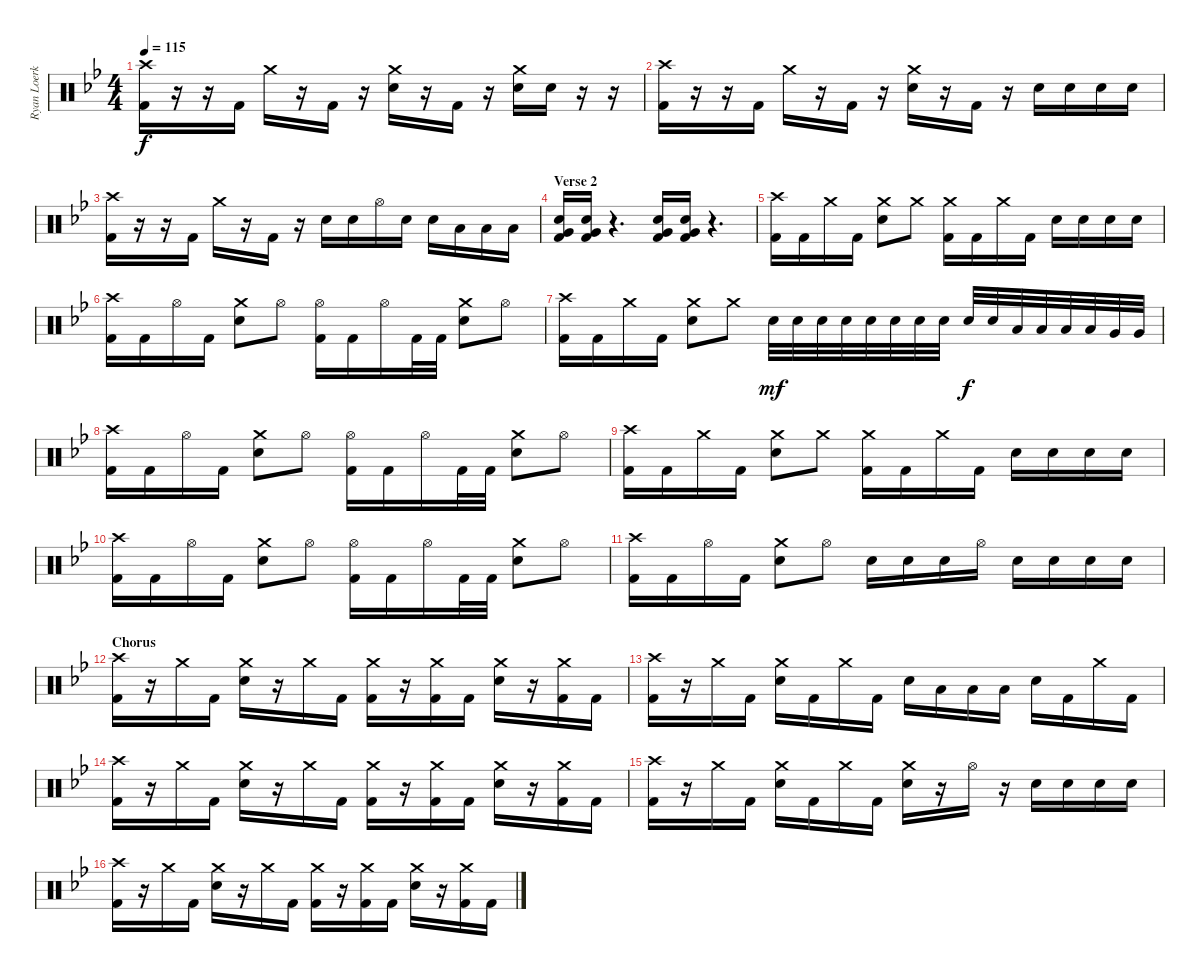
\track ("Ryan Loerke" "Ryan Loerk") {instrument percussion}
\staff {score}
\articulation defaults
\ts (4 4)
\tempo 115
\clef neutral
\ks gminor
("Crash high (hit)" "Kick (hit) 2").16{dy f} r.16 r.16 "Kick (hit) 2".16 "Crash medium (hit)".16 r.16 "Kick (hit) 2".16 r.16 ("Crash medium (hit)" "Snare (hit) 2").16 r.16 "Kick (hit) 2".16 r.16 ("Crash medium (hit)" "Snare (hit) 2").16 "Snare (hit) 2".16 r.16 r.16 |
("Crash high (hit)" "Kick (hit) 2").16 r.16 r.16 "Kick (hit) 2".16 "Crash medium (hit)".16 r.16 "Kick (hit) 2".16 r.16 ("Crash medium (hit)" "Snare (hit) 2").16 r.16 "Kick (hit) 2".16 r.16 "Snare (hit) 2".16 "Snare (hit) 2".16 "Snare (hit) 2".16 "Snare (hit) 2".16 |
("Crash high (hit)" "Kick (hit) 2").16 r.16 r.16 "Kick (hit) 2".16 "Crash medium (hit)".16 r.16 "Kick (hit) 2".16 r.16 "Snare (hit) 2".16 "Snare (hit) 2".16 "Hi-Hat (open)".16 "Snare (hit) 2".16 "Snare (hit) 2".16 "Low Tom (hit)".16 "Low Tom (hit)".16 "Low Tom (hit)".16 |
\section ("" "Verse 2")
("Snare (hit) 2" "Very Low Tom (hit)" "Kick (hit) 2").16 ("Snare (hit) 2" "Very Low Tom (hit)" "Kick (hit) 2").16 r.4{d} ("Snare (hit) 2" "Very Low Tom (hit)" "Kick (hit) 2").16 ("Snare (hit) 2" "Very Low Tom (hit)" "Kick (hit) 2").16 r.4{d} |
("Crash high (hit)" "Kick (hit) 2").16 "Kick (hit) 2".16 "Crash medium (hit)".16 "Kick (hit) 2".16 ("Crash medium (hit)" "Snare (hit) 2").8 "Crash medium (hit)".8 ("Crash medium (hit)" "Kick (hit) 2").16 "Kick (hit) 2".16 "Crash medium (hit)".16 "Kick (hit) 2".16 "Snare (hit) 2".16 "Snare (hit) 2".16 "Snare (hit) 2".16 "Snare (hit) 2".16 |
("Crash high (hit)" "Kick (hit) 2").16 "Kick (hit) 2".16 "Hi-Hat (open)".16 "Kick (hit) 2".16 ("Crash medium (hit)" "Snare (hit) 2").8 "Hi-Hat (open)".8 ("Hi-Hat (open)" "Kick (hit) 2").16 "Kick (hit) 2".16 "Hi-Hat (open)".16 "Kick (hit) 2".32 "Kick (hit) 2".32 ("Crash medium (hit)" "Snare (hit) 2").8 "Hi-Hat (open)".8 |
("Crash high (hit)" "Kick (hit) 2").16 "Kick (hit) 2".16 "Crash medium (hit)".16 "Kick (hit) 2".16 ("Crash medium (hit)" "Snare (hit) 2").8 "Crash medium (hit)".8 "Snare (hit) 2".32{dy mf} "Snare (hit) 2".32 "Snare (hit) 2".32 "Snare (hit) 2".32 "Snare (hit) 2".32 "Snare (hit) 2".32 "Snare (hit) 2".32 "Snare (hit) 2".32 "Snare (hit) 2".32{dy f} "Snare (hit) 2".32 "Low Tom (hit)".32 "Low Tom (hit)".32 "Low Tom (hit)".32 "Low Tom (hit)".32 "Very Low Tom (hit)".32 "Very Low Tom (hit)".32 |
("Crash high (hit)" "Kick (hit) 2").16 "Kick (hit) 2".16 "Hi-Hat (open)".16 "Kick (hit) 2".16 ("Crash medium (hit)" "Snare (hit) 2").8 "Hi-Hat (open)".8 ("Hi-Hat (open)" "Kick (hit) 2").16 "Kick (hit) 2".16 "Hi-Hat (open)".16 "Kick (hit) 2".32 "Kick (hit) 2".32 ("Crash medium (hit)" "Snare (hit) 2").8 "Hi-Hat (open)".8 |
("Crash high (hit)" "Kick (hit) 2").16 "Kick (hit) 2".16 "Crash medium (hit)".16 "Kick (hit) 2".16 ("Crash medium (hit)" "Snare (hit) 2").8 "Crash medium (hit)".8 ("Crash medium (hit)" "Kick (hit) 2").16 "Kick (hit) 2".16 "Crash medium (hit)".16 "Kick (hit) 2".16 "Snare (hit) 2".16 "Snare (hit) 2".16 "Snare (hit) 2".16 "Snare (hit) 2".16 |
("Crash high (hit)" "Kick (hit) 2").16 "Kick (hit) 2".16 "Hi-Hat (open)".16 "Kick (hit) 2".16 ("Crash medium (hit)" "Snare (hit) 2").8 "Hi-Hat (open)".8 ("Hi-Hat (open)" "Kick (hit) 2").16 "Kick (hit) 2".16 "Hi-Hat (open)".16 "Kick (hit) 2".32 "Kick (hit) 2".32 ("Crash medium (hit)" "Snare (hit) 2").8 "Hi-Hat (open)".8 |
("Crash high (hit)" "Kick (hit) 2").16 "Kick (hit) 2".16 "Hi-Hat (open)".16 "Kick (hit) 2".16 ("Crash medium (hit)" "Snare (hit) 2").8 "Hi-Hat (open)".8 "Snare (hit) 2".16 "Snare (hit) 2".16 "Snare (hit) 2".16 "Hi-Hat (open)".16 "Snare (hit) 2".16 "Snare (hit) 2".16 "Snare (hit) 2".16 "Snare (hit) 2".16 |
\section ("" "Chorus")
("Crash high (hit)" "Kick (hit) 2").16 r.16 "Crash medium (hit)".16 "Kick (hit) 2".16 ("Crash medium (hit)" "Snare (hit) 2").16 r.16 "Crash medium (hit)".16 "Kick (hit) 2".16 ("Crash medium (hit)" "Kick (hit) 2").16 r.16 ("Crash medium (hit)" "Kick (hit) 2").16 "Kick (hit) 2".16 ("Crash medium (hit)" "Snare (hit) 2").16 r.16 ("Crash medium (hit)" "Kick (hit) 2").16 "Kick (hit) 2".16 |
("Crash high (hit)" "Kick (hit) 2").16 r.16 "Crash medium (hit)".16 "Kick (hit) 2".16 ("Crash medium (hit)" "Snare (hit) 2").16 "Kick (hit) 2".16 "Crash medium (hit)".16 "Kick (hit) 2".16 "Snare (hit) 2".16 "Low Tom (hit)".16 "Low Tom (hit)".16 "Low Tom (hit)".16 "Snare (hit) 2".16 "Kick (hit) 2".16 "Crash medium (hit)".16 "Kick (hit) 2".16 |
("Crash high (hit)" "Kick (hit) 2").16 r.16 "Crash medium (hit)".16 "Kick (hit) 2".16 ("Crash medium (hit)" "Snare (hit) 2").16 r.16 "Crash medium (hit)".16 "Kick (hit) 2".16 ("Crash medium (hit)" "Kick (hit) 2").16 r.16 ("Crash medium (hit)" "Kick (hit) 2").16 "Kick (hit) 2".16 ("Crash medium (hit)" "Snare (hit) 2").16 r.16 ("Crash medium (hit)" "Kick (hit) 2").16 "Kick (hit) 2".16 |
("Crash high (hit)" "Kick (hit) 2").16 r.16 "Crash medium (hit)".16 "Kick (hit) 2".16 ("Crash medium (hit)" "Snare (hit) 2").16 "Kick (hit) 2".16 "Crash medium (hit)".16 "Kick (hit) 2".16 ("Crash medium (hit)" "Snare (hit) 2").16 r.16 "Hi-Hat (open)".16 r.16 "Snare (hit) 2".16 "Snare (hit) 2".16 "Snare (hit) 2".16 "Snare (hit) 2".16 |
("Crash high (hit)" "Kick (hit) 2").16 r.16 "Crash medium (hit)".16 "Kick (hit) 2".16 ("Crash medium (hit)" "Snare (hit) 2").16 r.16 "Crash medium (hit)".16 "Kick (hit) 2".16 ("Crash medium (hit)" "Kick (hit) 2").16 r.16 ("Crash medium (hit)" "Kick (hit) 2").16 "Kick (hit) 2".16 ("Crash medium (hit)" "Snare (hit) 2").16 r.16 ("Crash medium (hit)" "Kick (hit) 2").16 "Kick (hit) 2".16
